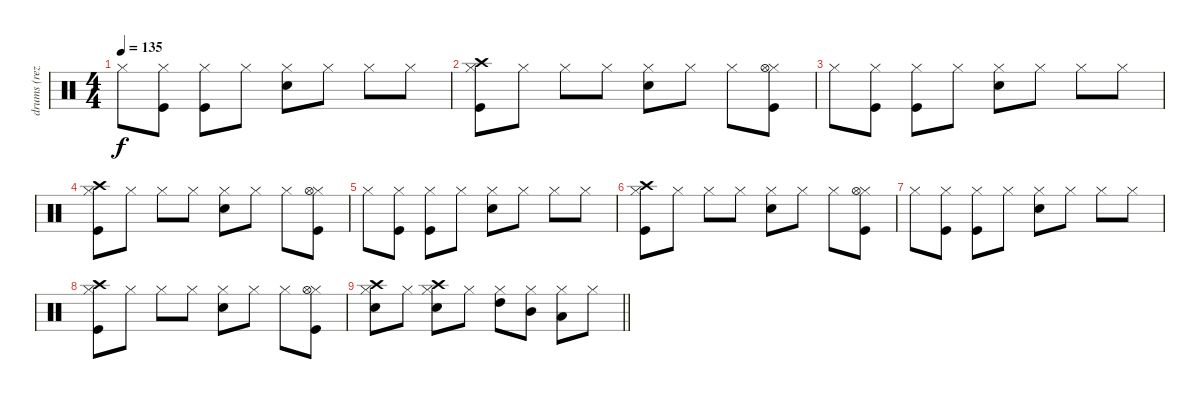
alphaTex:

\track ("drums (reza)" "drums (rez") {instrument percussion}
\staff {score}
\articulation defaults
\ts (4 4)
\tempo 135
\clef neutral
\ks c "Hi-Hat (closed)".8{dy f}
("Hi-Hat (closed)" "Kick (hit)").8 ("Hi-Hat (closed)" "Kick (hit)").8 "Hi-Hat (closed)".8 ("Hi-Hat (closed)" "Snare (hit) 2").8 "Hi-Hat (closed)".8 "Hi-Hat (closed)".8 "Hi-Hat (closed)".8 |
("Hi-Hat (closed)" "Kick (hit)" "Crash high (hit)").8 "Hi-Hat (closed)".8 "Hi-Hat (closed)".8 "Hi-Hat (closed)".8 ("Hi-Hat (closed)" "Snare (hit) 2").8 "Hi-Hat (closed)".8 "Hi-Hat (closed)".8 ("Hi-Hat (closed)" "Kick (hit)" "Hi-Hat (open)").8 |
"Hi-Hat (closed)".8 ("Hi-Hat (closed)" "Kick (hit)").8 ("Hi-Hat (closed)" "Kick (hit)").8 "Hi-Hat (closed)".8 ("Hi-Hat (closed)" "Snare (hit) 2").8 "Hi-Hat (closed)".8 "Hi-Hat (closed)".8 "Hi-Hat (closed)".8 |
("Hi-Hat (closed)" "Kick (hit)" "Crash high (hit)").8 "Hi-Hat (closed)".8 "Hi-Hat (closed)".8 "Hi-Hat (closed)".8 ("Hi-Hat (closed)" "Snare (hit) 2").8 "Hi-Hat (closed)".8 "Hi-Hat (closed)".8 ("Hi-Hat (closed)" "Kick (hit)" "Hi-Hat (open)").8 |
"Hi-Hat (closed)".8 ("Hi-Hat (closed)" "Kick (hit)").8 ("Hi-Hat (closed)" "Kick (hit)").8 "Hi-Hat (closed)".8 ("Hi-Hat (closed)" "Snare (hit) 2").8 "Hi-Hat (closed)".8 "Hi-Hat (closed)".8 "Hi-Hat (closed)".8 |
("Hi-Hat (closed)" "Kick (hit)" "Crash high (hit)").8 "Hi-Hat (closed)".8 "Hi-Hat (closed)".8 "Hi-Hat (closed)".8 ("Hi-Hat (closed)" "Snare (hit) 2").8 "Hi-Hat (closed)".8 "Hi-Hat (closed)".8 ("Hi-Hat (closed)" "Kick (hit)" "Hi-Hat (open)").8 |
"Hi-Hat (closed)".8 ("Hi-Hat (closed)" "Kick (hit)").8 ("Hi-Hat (closed)" "Kick (hit)").8 "Hi-Hat (closed)".8 ("Hi-Hat (closed)" "Snare (hit) 2").8 "Hi-Hat (closed)".8 "Hi-Hat (closed)".8 "Hi-Hat (closed)".8 |
("Hi-Hat (closed)" "Kick (hit)" "Crash high (hit)").8 "Hi-Hat (closed)".8 "Hi-Hat (closed)".8 "Hi-Hat (closed)".8 ("Hi-Hat (closed)" "Snare (hit) 2").8 "Hi-Hat (closed)".8 "Hi-Hat (closed)".8 ("Hi-Hat (closed)" "Kick (hit)" "Hi-Hat (open)").8 |
\barLineRight lightlight
("Hi-Hat (closed)" "Crash high (hit)" "Snare (hit) 2").8 "Hi-Hat (closed)".8 ("Hi-Hat (closed)" "Crash high (hit)" "Snare (hit) 2").8 "Hi-Hat (closed)".8 ("Hi-Hat (closed)" "High Tom (hit)").8 ("Hi-Hat (closed)" "Mid Tom (hit)").8 ("Hi-Hat (closed)" "Low Tom (hit)").8 "Hi-Hat (closed)".8
